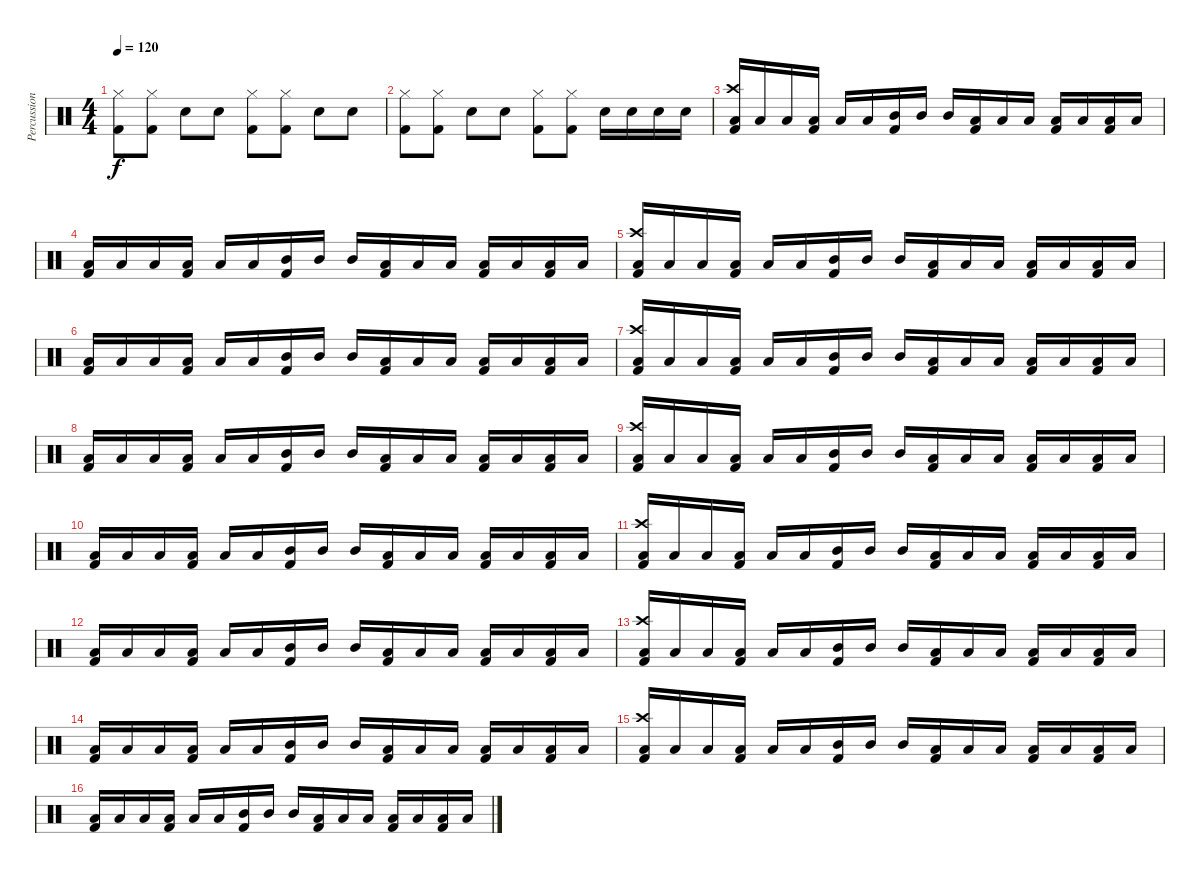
\track ("Percussion" "Percussion") {instrument percussion}
\staff {score}
\articulation defaults
\ts (4 4)
\tempo 120
\clef neutral
\ks c
("Hi-Hat (closed)" "Kick (hit) 2").8{dy f} ("Hi-Hat (closed)" "Kick (hit) 2").8 "Electric Snare (hit)".8 "Electric Snare (hit)".8 ("Hi-Hat (closed)" "Kick (hit) 2").8 ("Hi-Hat (closed)" "Kick (hit) 2").8 "Electric Snare (hit)".8 "Electric Snare (hit)".8 |
("Hi-Hat (closed)" "Kick (hit) 2").8 ("Hi-Hat (closed)" "Kick (hit) 2").8 "Electric Snare (hit)".8 "Electric Snare (hit)".8 ("Hi-Hat (closed)" "Kick (hit) 2").8 ("Hi-Hat (closed)" "Kick (hit) 2").8 "Electric Snare (hit)".16 "Electric Snare (hit)".16 "Electric Snare (hit)".16 "Electric Snare (hit)".16 |
("Crash high (hit)" "Low Floor Tom (hit)" "Kick (hit) 2").16 "Low Floor Tom (hit)".16 "Low Floor Tom (hit)".16 ("Low Tom (hit)" "Kick (hit) 2").16 "Low Tom (hit)".16 "Low Tom (hit)".16 ("Mid Tom (hit)" "Kick (hit) 2").16 "Mid Tom (hit)".16 "Mid Tom (hit)".16 ("Low Tom (hit)" "Kick (hit) 2").16 "Low Tom (hit)".16 "Low Tom (hit)".16 ("Low Floor Tom (hit)" "Kick (hit) 2").16 "Low Floor Tom (hit)".16 ("Low Tom (hit)" "Kick (hit) 2").16 "Low Tom (hit)".16 |
("Low Floor Tom (hit)" "Kick (hit) 2").16 "Low Floor Tom (hit)".16 "Low Floor Tom (hit)".16 ("Low Tom (hit)" "Kick (hit) 2").16 "Low Tom (hit)".16 "Low Tom (hit)".16 ("Mid Tom (hit)" "Kick (hit) 2").16 "Mid Tom (hit)".16 "Mid Tom (hit)".16 ("Low Tom (hit)" "Kick (hit) 2").16 "Low Tom (hit)".16 "Low Tom (hit)".16 ("Low Floor Tom (hit)" "Kick (hit) 2").16 "Low Floor Tom (hit)".16 ("Low Tom (hit)" "Kick (hit) 2").16 "Low Tom (hit)".16 |
("Crash high (hit)" "Low Floor Tom (hit)" "Kick (hit) 2").16 "Low Floor Tom (hit)".16 "Low Floor Tom (hit)".16 ("Low Tom (hit)" "Kick (hit) 2").16 "Low Tom (hit)".16 "Low Tom (hit)".16 ("Mid Tom (hit)" "Kick (hit) 2").16 "Mid Tom (hit)".16 "Mid Tom (hit)".16 ("Low Tom (hit)" "Kick (hit) 2").16 "Low Tom (hit)".16 "Low Tom (hit)".16 ("Low Floor Tom (hit)" "Kick (hit) 2").16 "Low Floor Tom (hit)".16 ("Low Tom (hit)" "Kick (hit) 2").16 "Low Tom (hit)".16 |
("Low Floor Tom (hit)" "Kick (hit) 2").16 "Low Floor Tom (hit)".16 "Low Floor Tom (hit)".16 ("Low Tom (hit)" "Kick (hit) 2").16 "Low Tom (hit)".16 "Low Tom (hit)".16 ("Mid Tom (hit)" "Kick (hit) 2").16 "Mid Tom (hit)".16 "Mid Tom (hit)".16 ("Low Tom (hit)" "Kick (hit) 2").16 "Low Tom (hit)".16 "Low Tom (hit)".16 ("Low Floor Tom (hit)" "Kick (hit) 2").16 "Low Floor Tom (hit)".16 ("Low Tom (hit)" "Kick (hit) 2").16 "Low Tom (hit)".16 |
("Crash high (hit)" "Low Floor Tom (hit)" "Kick (hit) 2").16 "Low Floor Tom (hit)".16 "Low Floor Tom (hit)".16 ("Low Tom (hit)" "Kick (hit) 2").16 "Low Tom (hit)".16 "Low Tom (hit)".16 ("Mid Tom (hit)" "Kick (hit) 2").16 "Mid Tom (hit)".16 "Mid Tom (hit)".16 ("Low Tom (hit)" "Kick (hit) 2").16 "Low Tom (hit)".16 "Low Tom (hit)".16 ("Low Floor Tom (hit)" "Kick (hit) 2").16 "Low Floor Tom (hit)".16 ("Low Tom (hit)" "Kick (hit) 2").16 "Low Tom (hit)".16 |
("Low Floor Tom (hit)" "Kick (hit) 2").16 "Low Floor Tom (hit)".16 "Low Floor Tom (hit)".16 ("Low Tom (hit)" "Kick (hit) 2").16 "Low Tom (hit)".16 "Low Tom (hit)".16 ("Mid Tom (hit)" "Kick (hit) 2").16 "Mid Tom (hit)".16 "Mid Tom (hit)".16 ("Low Tom (hit)" "Kick (hit) 2").16 "Low Tom (hit)".16 "Low Tom (hit)".16 ("Low Floor Tom (hit)" "Kick (hit) 2").16 "Low Floor Tom (hit)".16 ("Low Tom (hit)" "Kick (hit) 2").16 "Low Tom (hit)".16 |
("Crash high (hit)" "Low Floor Tom (hit)" "Kick (hit) 2").16 "Low Floor Tom (hit)".16 "Low Floor Tom (hit)".16 ("Low Tom (hit)" "Kick (hit) 2").16 "Low Tom (hit)".16 "Low Tom (hit)".16 ("Mid Tom (hit)" "Kick (hit) 2").16 "Mid Tom (hit)".16 "Mid Tom (hit)".16 ("Low Tom (hit)" "Kick (hit) 2").16 "Low Tom (hit)".16 "Low Tom (hit)".16 ("Low Floor Tom (hit)" "Kick (hit) 2").16 "Low Floor Tom (hit)".16 ("Low Tom (hit)" "Kick (hit) 2").16 "Low Tom (hit)".16 |
("Low Floor Tom (hit)" "Kick (hit) 2").16 "Low Floor Tom (hit)".16 "Low Floor Tom (hit)".16 ("Low Tom (hit)" "Kick (hit) 2").16 "Low Tom (hit)".16 "Low Tom (hit)".16 ("Mid Tom (hit)" "Kick (hit) 2").16 "Mid Tom (hit)".16 "Mid Tom (hit)".16 ("Low Tom (hit)" "Kick (hit) 2").16 "Low Tom (hit)".16 "Low Tom (hit)".16 ("Low Floor Tom (hit)" "Kick (hit) 2").16 "Low Floor Tom (hit)".16 ("Low Tom (hit)" "Kick (hit) 2").16 "Low Tom (hit)".16 |
("Crash high (hit)" "Low Floor Tom (hit)" "Kick (hit) 2").16 "Low Floor Tom (hit)".16 "Low Floor Tom (hit)".16 ("Low Tom (hit)" "Kick (hit) 2").16 "Low Tom (hit)".16 "Low Tom (hit)".16 ("Mid Tom (hit)" "Kick (hit) 2").16 "Mid Tom (hit)".16 "Mid Tom (hit)".16 ("Low Tom (hit)" "Kick (hit) 2").16 "Low Tom (hit)".16 "Low Tom (hit)".16 ("Low Floor Tom (hit)" "Kick (hit) 2").16 "Low Floor Tom (hit)".16 ("Low Tom (hit)" "Kick (hit) 2").16 "Low Tom (hit)".16 |
("Low Floor Tom (hit)" "Kick (hit) 2").16 "Low Floor Tom (hit)".16 "Low Floor Tom (hit)".16 ("Low Tom (hit)" "Kick (hit) 2").16 "Low Tom (hit)".16 "Low Tom (hit)".16 ("Mid Tom (hit)" "Kick (hit) 2").16 "Mid Tom (hit)".16 "Mid Tom (hit)".16 ("Low Tom (hit)" "Kick (hit) 2").16 "Low Tom (hit)".16 "Low Tom (hit)".16 ("Low Floor Tom (hit)" "Kick (hit) 2").16 "Low Floor Tom (hit)".16 ("Low Tom (hit)" "Kick (hit) 2").16 "Low Tom (hit)".16 |
("Crash high (hit)" "Low Floor Tom (hit)" "Kick (hit) 2").16 "Low Floor Tom (hit)".16 "Low Floor Tom (hit)".16 ("Low Tom (hit)" "Kick (hit) 2").16 "Low Tom (hit)".16 "Low Tom (hit)".16 ("Mid Tom (hit)" "Kick (hit) 2").16 "Mid Tom (hit)".16 "Mid Tom (hit)".16 ("Low Tom (hit)" "Kick (hit) 2").16 "Low Tom (hit)".16 "Low Tom (hit)".16 ("Low Floor Tom (hit)" "Kick (hit) 2").16 "Low Floor Tom (hit)".16 ("Low Tom (hit)" "Kick (hit) 2").16 "Low Tom (hit)".16 |
("Low Floor Tom (hit)" "Kick (hit) 2").16 "Low Floor Tom (hit)".16 "Low Floor Tom (hit)".16 ("Low Tom (hit)" "Kick (hit) 2").16 "Low Tom (hit)".16 "Low Tom (hit)".16 ("Mid Tom (hit)" "Kick (hit) 2").16 "Mid Tom (hit)".16 "Mid Tom (hit)".16 ("Low Tom (hit)" "Kick (hit) 2").16 "Low Tom (hit)".16 "Low Tom (hit)".16 ("Low Floor Tom (hit)" "Kick (hit) 2").16 "Low Floor Tom (hit)".16 ("Low Tom (hit)" "Kick (hit) 2").16 "Low Tom (hit)".16 |
("Crash high (hit)" "Low Floor Tom (hit)" "Kick (hit) 2").16 "Low Floor Tom (hit)".16 "Low Floor Tom (hit)".16 ("Low Tom (hit)" "Kick (hit) 2").16 "Low Tom (hit)".16 "Low Tom (hit)".16 ("Mid Tom (hit)" "Kick (hit) 2").16 "Mid Tom (hit)".16 "Mid Tom (hit)".16 ("Low Tom (hit)" "Kick (hit) 2").16 "Low Tom (hit)".16 "Low Tom (hit)".16 ("Low Floor Tom (hit)" "Kick (hit) 2").16 "Low Floor Tom (hit)".16 ("Low Tom (hit)" "Kick (hit) 2").16 "Low Tom (hit)".16 |
("Low Floor Tom (hit)" "Kick (hit) 2").16 "Low Floor Tom (hit)".16 "Low Floor Tom (hit)".16 ("Low Tom (hit)" "Kick (hit) 2").16 "Low Tom (hit)".16 "Low Tom (hit)".16 ("Mid Tom (hit)" "Kick (hit) 2").16 "Mid Tom (hit)".16 "Mid Tom (hit)".16 ("Low Tom (hit)" "Kick (hit) 2").16 "Low Tom (hit)".16 "Low Tom (hit)".16 ("Low Floor Tom (hit)" "Kick (hit) 2").16 "Low Floor Tom (hit)".16 ("Low Tom (hit)" "Kick (hit) 2").16 "Low Tom (hit)".16
